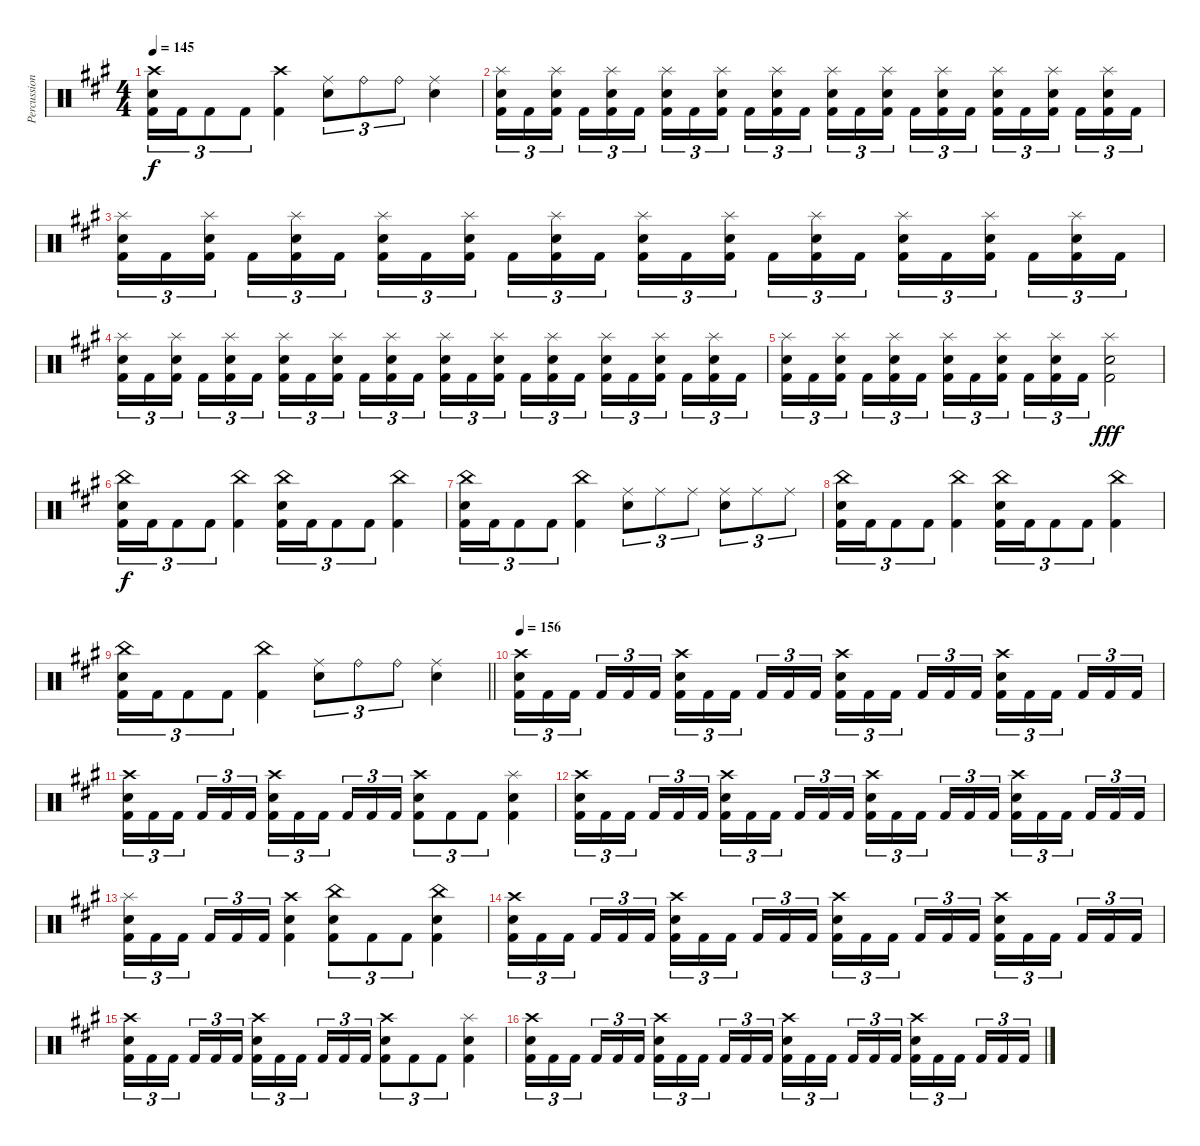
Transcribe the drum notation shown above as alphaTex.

\track ("Percussion" "Percussion") {instrument percussion bank 127}
\staff {score}
\articulation defaults
\ts (4 4)
\tempo 145
\clef neutral
\ks a
("Crash high (hit)" "Electric Snare (hit)" "Kick (hit) 2").16{tu (3 2) dy f} "Kick (hit) 2".16{tu (3 2)} "Kick (hit) 2".8{tu (3 2)} "Kick (hit) 2".8{tu (3 2)} ("Crash high (hit)" "Kick (hit) 2").4 ("Ride (middle)" "Electric Snare (hit)").8{tu (3 2)} "Ride (bell)".8{tu (3 2)} "Ride (bell)".8{tu (3 2)} ("Ride (middle)" "Electric Snare (hit)").4 |
("Splash (hit)" "Electric Snare (hit)" "Kick (hit) 2").16{tu (3 2)} "Kick (hit) 2".16{tu (3 2)} ("Splash (hit)" "Electric Snare (hit)" "Kick (hit) 2").16{tu (3 2) beam splitsecondary} "Kick (hit) 2".16{tu (3 2)} ("Splash (hit)" "Electric Snare (hit)" "Kick (hit) 2").16{tu (3 2)} "Kick (hit) 2".16{tu (3 2)} ("Splash (hit)" "Electric Snare (hit)" "Kick (hit) 2").16{tu (3 2)} "Kick (hit) 2".16{tu (3 2)} ("Splash (hit)" "Electric Snare (hit)" "Kick (hit) 2").16{tu (3 2) beam splitsecondary} "Kick (hit) 2".16{tu (3 2)} ("Splash (hit)" "Electric Snare (hit)" "Kick (hit) 2").16{tu (3 2)} "Kick (hit) 2".16{tu (3 2)} ("Splash (hit)" "Electric Snare (hit)" "Kick (hit) 2").16{tu (3 2)} "Kick (hit) 2".16{tu (3 2)} ("Splash (hit)" "Electric Snare (hit)" "Kick (hit) 2").16{tu (3 2) beam splitsecondary} "Kick (hit) 2".16{tu (3 2)} ("Splash (hit)" "Electric Snare (hit)" "Kick (hit) 2").16{tu (3 2)} "Kick (hit) 2".16{tu (3 2)} ("Splash (hit)" "Electric Snare (hit)" "Kick (hit) 2").16{tu (3 2)} "Kick (hit) 2".16{tu (3 2)} ("Splash (hit)" "Electric Snare (hit)" "Kick (hit) 2").16{tu (3 2) beam splitsecondary} "Kick (hit) 2".16{tu (3 2)} ("Splash (hit)" "Electric Snare (hit)" "Kick (hit) 2").16{tu (3 2)} "Kick (hit) 2".16{tu (3 2)} |
("Splash (hit)" "Electric Snare (hit)" "Kick (hit) 2").16{tu (3 2)} "Kick (hit) 2".16{tu (3 2)} ("Splash (hit)" "Electric Snare (hit)" "Kick (hit) 2").16{tu (3 2) beam splitsecondary} "Kick (hit) 2".16{tu (3 2)} ("Splash (hit)" "Electric Snare (hit)" "Kick (hit) 2").16{tu (3 2)} "Kick (hit) 2".16{tu (3 2)} ("Splash (hit)" "Electric Snare (hit)" "Kick (hit) 2").16{tu (3 2)} "Kick (hit) 2".16{tu (3 2)} ("Splash (hit)" "Electric Snare (hit)" "Kick (hit) 2").16{tu (3 2) beam splitsecondary} "Kick (hit) 2".16{tu (3 2)} ("Splash (hit)" "Electric Snare (hit)" "Kick (hit) 2").16{tu (3 2)} "Kick (hit) 2".16{tu (3 2)} ("Splash (hit)" "Electric Snare (hit)" "Kick (hit) 2").16{tu (3 2)} "Kick (hit) 2".16{tu (3 2)} ("Splash (hit)" "Electric Snare (hit)" "Kick (hit) 2").16{tu (3 2) beam splitsecondary} "Kick (hit) 2".16{tu (3 2)} ("Splash (hit)" "Electric Snare (hit)" "Kick (hit) 2").16{tu (3 2)} "Kick (hit) 2".16{tu (3 2)} ("Splash (hit)" "Electric Snare (hit)" "Kick (hit) 2").16{tu (3 2)} "Kick (hit) 2".16{tu (3 2)} ("Splash (hit)" "Electric Snare (hit)" "Kick (hit) 2").16{tu (3 2) beam splitsecondary} "Kick (hit) 2".16{tu (3 2)} ("Splash (hit)" "Electric Snare (hit)" "Kick (hit) 2").16{tu (3 2)} "Kick (hit) 2".16{tu (3 2)} |
("Splash (hit)" "Electric Snare (hit)" "Kick (hit) 2").16{tu (3 2)} "Kick (hit) 2".16{tu (3 2)} ("Splash (hit)" "Electric Snare (hit)" "Kick (hit) 2").16{tu (3 2) beam splitsecondary} "Kick (hit) 2".16{tu (3 2)} ("Splash (hit)" "Electric Snare (hit)" "Kick (hit) 2").16{tu (3 2)} "Kick (hit) 2".16{tu (3 2)} ("Splash (hit)" "Electric Snare (hit)" "Kick (hit) 2").16{tu (3 2)} "Kick (hit) 2".16{tu (3 2)} ("Splash (hit)" "Electric Snare (hit)" "Kick (hit) 2").16{tu (3 2) beam splitsecondary} "Kick (hit) 2".16{tu (3 2)} ("Splash (hit)" "Electric Snare (hit)" "Kick (hit) 2").16{tu (3 2)} "Kick (hit) 2".16{tu (3 2)} ("Splash (hit)" "Electric Snare (hit)" "Kick (hit) 2").16{tu (3 2)} "Kick (hit) 2".16{tu (3 2)} ("Splash (hit)" "Electric Snare (hit)" "Kick (hit) 2").16{tu (3 2) beam splitsecondary} "Kick (hit) 2".16{tu (3 2)} ("Splash (hit)" "Electric Snare (hit)" "Kick (hit) 2").16{tu (3 2)} "Kick (hit) 2".16{tu (3 2)} ("Splash (hit)" "Electric Snare (hit)" "Kick (hit) 2").16{tu (3 2)} "Kick (hit) 2".16{tu (3 2)} ("Splash (hit)" "Electric Snare (hit)" "Kick (hit) 2").16{tu (3 2) beam splitsecondary} "Kick (hit) 2".16{tu (3 2)} ("Splash (hit)" "Electric Snare (hit)" "Kick (hit) 2").16{tu (3 2)} "Kick (hit) 2".16{tu (3 2)} |
("Splash (hit)" "Electric Snare (hit)" "Kick (hit) 2").16{tu (3 2)} "Kick (hit) 2".16{tu (3 2)} ("Splash (hit)" "Electric Snare (hit)" "Kick (hit) 2").16{tu (3 2) beam splitsecondary} "Kick (hit) 2".16{tu (3 2)} ("Splash (hit)" "Electric Snare (hit)" "Kick (hit) 2").16{tu (3 2)} "Kick (hit) 2".16{tu (3 2)} ("Splash (hit)" "Electric Snare (hit)" "Kick (hit) 2").16{tu (3 2)} "Kick (hit) 2".16{tu (3 2)} ("Splash (hit)" "Electric Snare (hit)" "Kick (hit) 2").16{tu (3 2) beam splitsecondary} "Kick (hit) 2".16{tu (3 2)} ("Splash (hit)" "Electric Snare (hit)" "Kick (hit) 2").16{tu (3 2)} "Kick (hit) 2".16{tu (3 2)} ("Splash (hit)" "Electric Snare (hit)" "Kick (hit) 2").2{dy fff} |
("China (hit)" "Electric Snare (hit)" "Kick (hit) 2").16{tu (3 2) dy f} "Kick (hit) 2".16{tu (3 2)} "Kick (hit) 2".8{tu (3 2)} "Kick (hit) 2".8{tu (3 2)} ("China (hit)" "Kick (hit) 2").4 ("China (hit)" "Electric Snare (hit)" "Kick (hit) 2").16{tu (3 2)} "Kick (hit) 2".16{tu (3 2)} "Kick (hit) 2".8{tu (3 2)} "Kick (hit) 2".8{tu (3 2)} ("China (hit)" "Kick (hit) 2").4 |
("China (hit)" "Electric Snare (hit)" "Kick (hit) 2").16{tu (3 2)} "Kick (hit) 2".16{tu (3 2)} "Kick (hit) 2".8{tu (3 2)} "Kick (hit) 2".8{tu (3 2)} ("China (hit)" "Kick (hit) 2").4 ("Ride (middle)" "Electric Snare (hit)").8{tu (3 2)} "Ride (middle)".8{tu (3 2)} "Ride (middle)".8{tu (3 2)} ("Ride (middle)" "Electric Snare (hit)").8{tu (3 2)} "Ride (middle)".8{tu (3 2)} "Ride (middle)".8{tu (3 2)} |
("China (hit)" "Electric Snare (hit)" "Kick (hit) 2").16{tu (3 2)} "Kick (hit) 2".16{tu (3 2)} "Kick (hit) 2".8{tu (3 2)} "Kick (hit) 2".8{tu (3 2)} ("China (hit)" "Kick (hit) 2").4 ("China (hit)" "Electric Snare (hit)" "Kick (hit) 2").16{tu (3 2)} "Kick (hit) 2".16{tu (3 2)} "Kick (hit) 2".8{tu (3 2)} "Kick (hit) 2".8{tu (3 2)} ("China (hit)" "Kick (hit) 2").4 |
\barLineRight lightlight
("China (hit)" "Electric Snare (hit)" "Kick (hit) 2").16{tu (3 2)} "Kick (hit) 2".16{tu (3 2)} "Kick (hit) 2".8{tu (3 2)} "Kick (hit) 2".8{tu (3 2)} ("China (hit)" "Kick (hit) 2").4 ("Ride (middle)" "Electric Snare (hit)").8{tu (3 2)} "Ride (bell)".8{tu (3 2)} "Ride (bell)".8{tu (3 2)} ("Ride (middle)" "Electric Snare (hit)").4 |
\section ("" "")
\tempo 156
("Crash high (hit)" "Electric Snare (hit)" "Kick (hit) 2").16{tu (3 2)} "Kick (hit) 2".16{tu (3 2)} "Kick (hit) 2".16{tu (3 2) beam splitsecondary} "Kick (hit) 2".16{tu (3 2)} "Kick (hit) 2".16{tu (3 2)} "Kick (hit) 2".16{tu (3 2)} ("Crash high (hit)" "Electric Snare (hit)" "Kick (hit) 2").16{tu (3 2)} "Kick (hit) 2".16{tu (3 2)} "Kick (hit) 2".16{tu (3 2) beam splitsecondary} "Kick (hit) 2".16{tu (3 2)} "Kick (hit) 2".16{tu (3 2)} "Kick (hit) 2".16{tu (3 2)} ("Crash high (hit)" "Electric Snare (hit)" "Kick (hit) 2").16{tu (3 2)} "Kick (hit) 2".16{tu (3 2)} "Kick (hit) 2".16{tu (3 2) beam splitsecondary} "Kick (hit) 2".16{tu (3 2)} "Kick (hit) 2".16{tu (3 2)} "Kick (hit) 2".16{tu (3 2)} ("Crash high (hit)" "Electric Snare (hit)" "Kick (hit) 2").16{tu (3 2)} "Kick (hit) 2".16{tu (3 2)} "Kick (hit) 2".16{tu (3 2) beam splitsecondary} "Kick (hit) 2".16{tu (3 2)} "Kick (hit) 2".16{tu (3 2)} "Kick (hit) 2".16{tu (3 2)} |
("Crash high (hit)" "Electric Snare (hit)" "Kick (hit) 2").16{tu (3 2)} "Kick (hit) 2".16{tu (3 2)} "Kick (hit) 2".16{tu (3 2) beam splitsecondary} "Kick (hit) 2".16{tu (3 2)} "Kick (hit) 2".16{tu (3 2)} "Kick (hit) 2".16{tu (3 2)} ("Crash high (hit)" "Electric Snare (hit)" "Kick (hit) 2").16{tu (3 2)} "Kick (hit) 2".16{tu (3 2)} "Kick (hit) 2".16{tu (3 2) beam splitsecondary} "Kick (hit) 2".16{tu (3 2)} "Kick (hit) 2".16{tu (3 2)} "Kick (hit) 2".16{tu (3 2)} ("Crash high (hit)" "Electric Snare (hit)" "Kick (hit) 2").8{tu (3 2)} "Kick (hit) 2".8{tu (3 2)} "Kick (hit) 2".8{tu (3 2)} ("Splash (hit)" "Electric Snare (hit)" "Kick (hit) 2").4 |
("Crash high (hit)" "Electric Snare (hit)" "Kick (hit) 2").16{tu (3 2)} "Kick (hit) 2".16{tu (3 2)} "Kick (hit) 2".16{tu (3 2) beam splitsecondary} "Kick (hit) 2".16{tu (3 2)} "Kick (hit) 2".16{tu (3 2)} "Kick (hit) 2".16{tu (3 2)} ("Crash high (hit)" "Electric Snare (hit)" "Kick (hit) 2").16{tu (3 2)} "Kick (hit) 2".16{tu (3 2)} "Kick (hit) 2".16{tu (3 2) beam splitsecondary} "Kick (hit) 2".16{tu (3 2)} "Kick (hit) 2".16{tu (3 2)} "Kick (hit) 2".16{tu (3 2)} ("Crash high (hit)" "Electric Snare (hit)" "Kick (hit) 2").16{tu (3 2)} "Kick (hit) 2".16{tu (3 2)} "Kick (hit) 2".16{tu (3 2) beam splitsecondary} "Kick (hit) 2".16{tu (3 2)} "Kick (hit) 2".16{tu (3 2)} "Kick (hit) 2".16{tu (3 2)} ("Crash high (hit)" "Electric Snare (hit)" "Kick (hit) 2").16{tu (3 2)} "Kick (hit) 2".16{tu (3 2)} "Kick (hit) 2".16{tu (3 2) beam splitsecondary} "Kick (hit) 2".16{tu (3 2)} "Kick (hit) 2".16{tu (3 2)} "Kick (hit) 2".16{tu (3 2)} |
("Splash (hit)" "Electric Snare (hit)" "Kick (hit) 2").16{tu (3 2)} "Kick (hit) 2".16{tu (3 2)} "Kick (hit) 2".16{tu (3 2) beam splitsecondary} "Kick (hit) 2".16{tu (3 2)} "Kick (hit) 2".16{tu (3 2)} "Kick (hit) 2".16{tu (3 2)} ("Crash high (hit)" "Electric Snare (hit)" "Kick (hit) 2").4 ("China (hit)" "Electric Snare (hit)" "Kick (hit) 2").8{tu (3 2)} "Kick (hit) 2".8{tu (3 2)} "Kick (hit) 2".8{tu (3 2)} ("China (hit)" "Electric Snare (hit)" "Kick (hit) 2").4 |
("Crash high (hit)" "Electric Snare (hit)" "Kick (hit) 2").16{tu (3 2)} "Kick (hit) 2".16{tu (3 2)} "Kick (hit) 2".16{tu (3 2) beam splitsecondary} "Kick (hit) 2".16{tu (3 2)} "Kick (hit) 2".16{tu (3 2)} "Kick (hit) 2".16{tu (3 2)} ("Crash high (hit)" "Electric Snare (hit)" "Kick (hit) 2").16{tu (3 2)} "Kick (hit) 2".16{tu (3 2)} "Kick (hit) 2".16{tu (3 2) beam splitsecondary} "Kick (hit) 2".16{tu (3 2)} "Kick (hit) 2".16{tu (3 2)} "Kick (hit) 2".16{tu (3 2)} ("Crash high (hit)" "Electric Snare (hit)" "Kick (hit) 2").16{tu (3 2)} "Kick (hit) 2".16{tu (3 2)} "Kick (hit) 2".16{tu (3 2) beam splitsecondary} "Kick (hit) 2".16{tu (3 2)} "Kick (hit) 2".16{tu (3 2)} "Kick (hit) 2".16{tu (3 2)} ("Crash high (hit)" "Electric Snare (hit)" "Kick (hit) 2").16{tu (3 2)} "Kick (hit) 2".16{tu (3 2)} "Kick (hit) 2".16{tu (3 2) beam splitsecondary} "Kick (hit) 2".16{tu (3 2)} "Kick (hit) 2".16{tu (3 2)} "Kick (hit) 2".16{tu (3 2)} |
("Crash high (hit)" "Electric Snare (hit)" "Kick (hit) 2").16{tu (3 2)} "Kick (hit) 2".16{tu (3 2)} "Kick (hit) 2".16{tu (3 2) beam splitsecondary} "Kick (hit) 2".16{tu (3 2)} "Kick (hit) 2".16{tu (3 2)} "Kick (hit) 2".16{tu (3 2)} ("Crash high (hit)" "Electric Snare (hit)" "Kick (hit) 2").16{tu (3 2)} "Kick (hit) 2".16{tu (3 2)} "Kick (hit) 2".16{tu (3 2) beam splitsecondary} "Kick (hit) 2".16{tu (3 2)} "Kick (hit) 2".16{tu (3 2)} "Kick (hit) 2".16{tu (3 2)} ("Crash high (hit)" "Electric Snare (hit)" "Kick (hit) 2").8{tu (3 2)} "Kick (hit) 2".8{tu (3 2)} "Kick (hit) 2".8{tu (3 2)} ("Splash (hit)" "Electric Snare (hit)" "Kick (hit) 2").4 |
("Crash high (hit)" "Electric Snare (hit)" "Kick (hit) 2").16{tu (3 2)} "Kick (hit) 2".16{tu (3 2)} "Kick (hit) 2".16{tu (3 2) beam splitsecondary} "Kick (hit) 2".16{tu (3 2)} "Kick (hit) 2".16{tu (3 2)} "Kick (hit) 2".16{tu (3 2)} ("Crash high (hit)" "Electric Snare (hit)" "Kick (hit) 2").16{tu (3 2)} "Kick (hit) 2".16{tu (3 2)} "Kick (hit) 2".16{tu (3 2) beam splitsecondary} "Kick (hit) 2".16{tu (3 2)} "Kick (hit) 2".16{tu (3 2)} "Kick (hit) 2".16{tu (3 2)} ("Crash high (hit)" "Electric Snare (hit)" "Kick (hit) 2").16{tu (3 2)} "Kick (hit) 2".16{tu (3 2)} "Kick (hit) 2".16{tu (3 2) beam splitsecondary} "Kick (hit) 2".16{tu (3 2)} "Kick (hit) 2".16{tu (3 2)} "Kick (hit) 2".16{tu (3 2)} ("Crash high (hit)" "Electric Snare (hit)" "Kick (hit) 2").16{tu (3 2)} "Kick (hit) 2".16{tu (3 2)} "Kick (hit) 2".16{tu (3 2) beam splitsecondary} "Kick (hit) 2".16{tu (3 2)} "Kick (hit) 2".16{tu (3 2)} "Kick (hit) 2".16{tu (3 2)}
